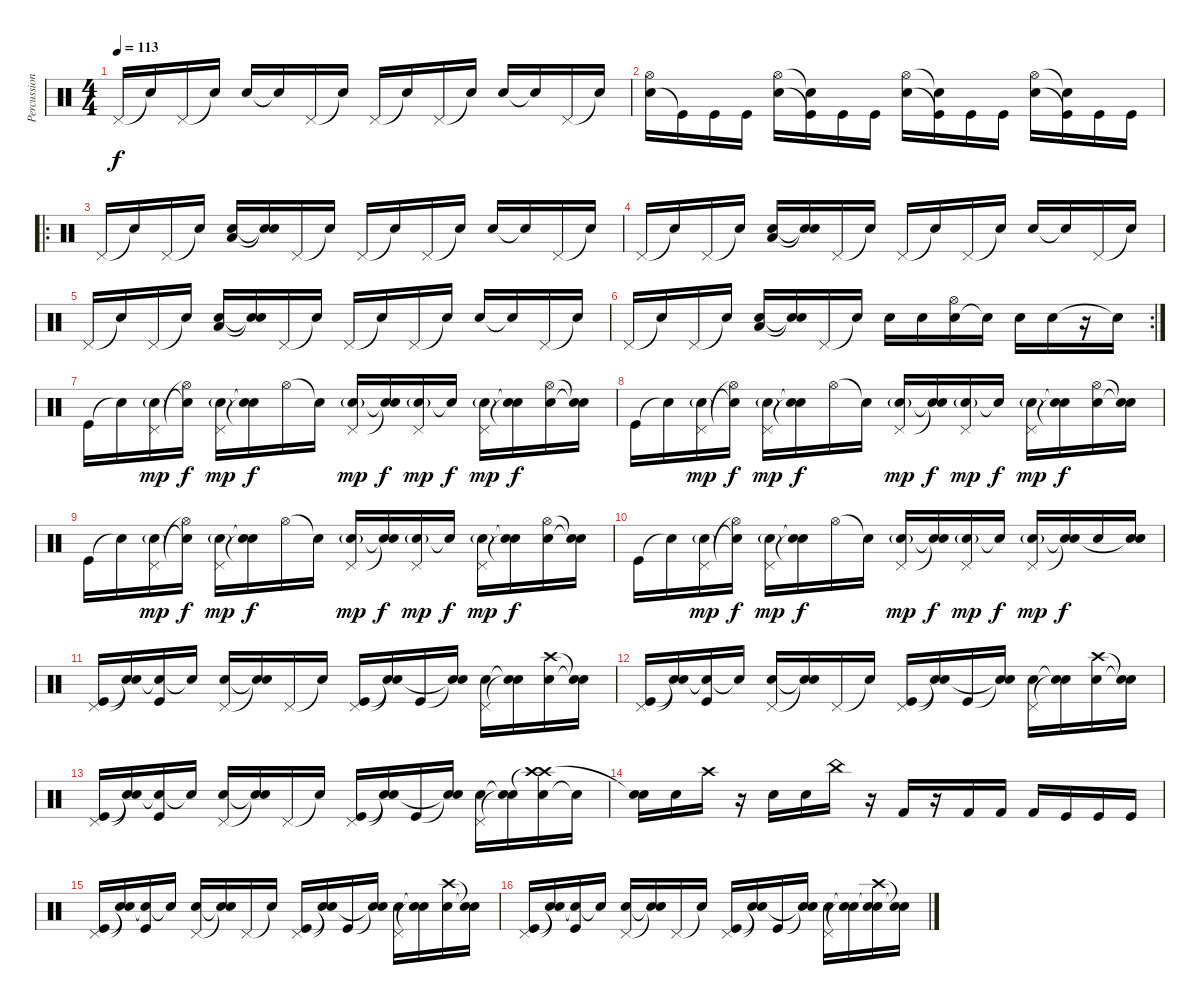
\track ("Percussions" "Percussion") {instrument percussion}
\staff {score}
\articulation defaults
\ts (4 4)
\tempo 113
\clef neutral
\ks c "Pedal Hi-Hat (hit)".16{dy f} "Snare (hit)"{t}.16 "Pedal Hi-Hat (hit)".16 "Snare (hit)"{t}.16 "Snare (hit) 2".16 "Snare (hit)"{t}.16 "Pedal Hi-Hat (hit)".16 "Snare (hit)"{t}.16 "Pedal Hi-Hat (hit)".16 "Snare (hit)"{t}.16 "Pedal Hi-Hat (hit)".16 "Snare (hit)"{t}.16 "Snare (hit) 2".16 "Snare (hit)"{t}.16 "Pedal Hi-Hat (hit)".16 "Snare (hit)"{t}.16
|
("Electric Snare (hit)" "Hi-Hat (open)").16 "Kick (hit)"{t}.16 "Kick (hit)".16 "Kick (hit)".16 ("Electric Snare (hit)" "Hi-Hat (open)").16 ("Kick (hit)"{t} "Snare (hit)"{t}).16 "Kick (hit)".16 "Kick (hit)".16 ("Electric Snare (hit)" "Hi-Hat (open)").16 ("Kick (hit)"{t} "Snare (hit)"{t}).16 "Kick (hit)".16 "Kick (hit)".16 ("Electric Snare (hit)" "Hi-Hat (open)").16 ("Kick (hit)"{t} "Snare (hit)"{t}).16 "Kick (hit)".16 "Kick (hit)".16 |
\ro "Pedal Hi-Hat (hit)".16 "Snare (hit)"{t}.16 "Pedal Hi-Hat (hit)".16 "Snare (hit)"{t}.16
("Snare (hit) 2" "Low Tom (hit)").16 ("Snare (hit)"{t} "Snare (hit)"{t}).16 "Pedal Hi-Hat (hit)".16 "Snare (hit)"{t}.16 "Pedal Hi-Hat (hit)".16 "Snare (hit)"{t}.16 "Pedal Hi-Hat (hit)".16 "Snare (hit)"{t}.16 "Snare (hit) 2".16 "Snare (hit)"{t}.16 "Pedal Hi-Hat (hit)".16 "Snare (hit)"{t}.16 |
"Pedal Hi-Hat (hit)".16 "Snare (hit)"{t}.16 "Pedal Hi-Hat (hit)".16 "Snare (hit)"{t}.16 ("Snare (hit) 2" "Low Tom (hit)").16 ("Snare (hit)"{t} "Snare (hit)"{t}).16 "Pedal Hi-Hat (hit)".16 "Snare (hit)"{t}.16 "Pedal Hi-Hat (hit)".16 "Snare (hit)"{t}.16 "Pedal Hi-Hat (hit)".16 "Snare (hit)"{t}.16 "Snare (hit) 2".16 "Snare (hit)"{t}.16 "Pedal Hi-Hat (hit)".16 "Snare (hit)"{t}.16 |
"Pedal Hi-Hat (hit)".16 "Snare (hit)"{t}.16 "Pedal Hi-Hat (hit)".16 "Snare (hit)"{t}.16 ("Snare (hit) 2" "Low Tom (hit)").16 ("Snare (hit)"{t} "Snare (hit)"{t}).16 "Pedal Hi-Hat (hit)".16 "Snare (hit)"{t}.16 "Pedal Hi-Hat (hit)".16 "Snare (hit)"{t}.16 "Pedal Hi-Hat (hit)".16 "Snare (hit)"{t}.16 "Snare (hit) 2".16 "Snare (hit)"{t}.16 "Pedal Hi-Hat (hit)".16 "Snare (hit)"{t}.16 |
\rc 2 "Pedal Hi-Hat (hit)".16 "Snare (hit)"{t}.16 "Pedal Hi-Hat (hit)".16 "Snare (hit)"{t}.16
("Snare (hit) 2" "Low Tom (hit)").16 ("Snare (hit)"{t} "Snare (hit)"{t}).16 "Pedal Hi-Hat (hit)".16 "Electric Snare (hit)"{t}.16 "Electric Snare (hit)".16 "Electric Snare (hit)".16 ("Electric Snare (hit)" "Hi-Hat (open)").16 "Electric Snare (hit)"{t}.16 "Electric Snare (hit)".16 "Electric Snare (hit)".16 r.16 "Snare (hit)"{t}.16 |
"Kick (hit)".16 "Snare (hit)"{t}.16 ("Electric Snare (hit)"{g} "Pedal Hi-Hat (hit)").16{dy mp} ("Electric Snare (hit)"{t} "Hi-Hat (open)"{t}).16{dy f} ("Electric Snare (hit)"{g} "Pedal Hi-Hat (hit)").16{dy mp} ("Snare (hit)"{t} "Snare (hit)"{t}).16{dy f} "Hi-Hat (open)".16 "Snare (hit)"{t}.16 ("Electric Snare (hit)"{g} "Pedal Hi-Hat (hit)").16{dy mp} ("Snare (hit)"{t} "Snare (hit)"{t}).16{dy f} ("Electric Snare (hit)"{g} "Pedal Hi-Hat (hit)").16{dy mp} "Snare (hit)"{t}.16{dy f} ("Electric Snare (hit)"{g} "Pedal Hi-Hat (hit)").16{dy mp} ("Snare (hit)"{t} "Snare (hit)"{t}).16{dy f} ("Hi-Hat (open)" "Electric Snare (hit)").16 ("Snare (hit)"{t} "Snare (hit)"{t}).16 |
"Kick (hit)".16 "Snare (hit)"{t}.16 ("Electric Snare (hit)"{g} "Pedal Hi-Hat (hit)").16{dy mp} ("Electric Snare (hit)"{t} "Hi-Hat (open)"{t}).16{dy f} ("Electric Snare (hit)"{g} "Pedal Hi-Hat (hit)").16{dy mp} ("Snare (hit)"{t} "Snare (hit)"{t}).16{dy f} "Hi-Hat (open)".16 "Snare (hit)"{t}.16 ("Electric Snare (hit)"{g} "Pedal Hi-Hat (hit)").16{dy mp} ("Snare (hit)"{t} "Snare (hit)"{t}).16{dy f} ("Electric Snare (hit)"{g} "Pedal Hi-Hat (hit)").16{dy mp} "Snare (hit)"{t}.16{dy f} ("Electric Snare (hit)"{g} "Pedal Hi-Hat (hit)").16{dy mp} ("Snare (hit)"{t} "Snare (hit)"{t}).16{dy f} ("Hi-Hat (open)" "Electric Snare (hit)").16 ("Snare (hit)"{t} "Snare (hit)"{t}).16 |
"Kick (hit)".16 "Snare (hit)"{t}.16 ("Electric Snare (hit)"{g} "Pedal Hi-Hat (hit)").16{dy mp} ("Electric Snare (hit)"{t} "Hi-Hat (open)"{t}).16{dy f} ("Electric Snare (hit)"{g} "Pedal Hi-Hat (hit)").16{dy mp} ("Snare (hit)"{t} "Snare (hit)"{t}).16{dy f} "Hi-Hat (open)".16 "Snare (hit)"{t}.16 ("Electric Snare (hit)"{g} "Pedal Hi-Hat (hit)").16{dy mp} ("Snare (hit)"{t} "Snare (hit)"{t}).16{dy f} ("Electric Snare (hit)"{g} "Pedal Hi-Hat (hit)").16{dy mp} "Snare (hit)"{t}.16{dy f} ("Electric Snare (hit)"{g} "Pedal Hi-Hat (hit)").16{dy mp} ("Snare (hit)"{t} "Snare (hit)"{t}).16{dy f} ("Hi-Hat (open)" "Electric Snare (hit)").16 ("Snare (hit)"{t} "Snare (hit)"{t}).16 |
"Kick (hit)".16 "Snare (hit)"{t}.16 ("Electric Snare (hit)"{g} "Pedal Hi-Hat (hit)").16{dy mp} ("Electric Snare (hit)"{t} "Hi-Hat (open)"{t}).16{dy f} ("Electric Snare (hit)"{g} "Pedal Hi-Hat (hit)").16{dy mp} ("Snare (hit)"{t} "Snare (hit)"{t}).16{dy f} "Hi-Hat (open)".16 "Snare (hit)"{t}.16 ("Electric Snare (hit)"{g} "Pedal Hi-Hat (hit)").16{dy mp} ("Snare (hit)"{t} "Snare (hit)"{t}).16{dy f} ("Electric Snare (hit)"{g} "Pedal Hi-Hat (hit)").16{dy mp} "Snare (hit)"{t}.16{dy f} ("Electric Snare (hit)"{g} "Pedal Hi-Hat (hit)").16{dy mp} ("Snare (hit)"{t} "Snare (hit)"{t}).16{dy f} "Electric Snare (hit)".16 ("Electric Snare (hit)" "Snare (hit)"{t}).16 |
("Pedal Hi-Hat (hit)" "Kick (hit)").16 ("Snare (hit)"{t} "Snare (hit)"{t}).16 ("Snare (hit)"{t} "Kick (hit)").16 "Snare (hit)"{t}.16 ("Pedal Hi-Hat (hit)" "Electric Snare (hit)").16 ("Snare (hit)"{t} "Snare (hit)"{t}).16 "Pedal Hi-Hat (hit)".16 "Snare (hit)"{t}.16 ("Pedal Hi-Hat (hit)" "Kick (hit)").16 ("Snare (hit)"{t} "Snare (hit)"{t}).16 "Kick (hit)".16 ("Snare (hit)"{t} "Snare (hit)"{t}).16 ("Pedal Hi-Hat (hit)" "Electric Snare (hit)").16 ("Snare (hit)"{t} "Snare (hit)"{t}).16 ("Crash high (hit)" "Electric Snare (hit)").16 ("Snare (hit)"{t} "Snare (hit)"{t}).16 |
("Pedal Hi-Hat (hit)" "Kick (hit)").16 ("Snare (hit)"{t} "Snare (hit)"{t}).16 ("Snare (hit)"{t} "Kick (hit)").16 "Snare (hit)"{t}.16 ("Pedal Hi-Hat (hit)" "Electric Snare (hit)").16 ("Snare (hit)"{t} "Snare (hit)"{t}).16 "Pedal Hi-Hat (hit)".16 "Snare (hit)"{t}.16 ("Pedal Hi-Hat (hit)" "Kick (hit)").16 ("Snare (hit)"{t} "Snare (hit)"{t}).16 "Kick (hit)".16 ("Snare (hit)"{t} "Snare (hit)"{t}).16 ("Pedal Hi-Hat (hit)" "Electric Snare (hit)").16 ("Snare (hit)"{t} "Snare (hit)"{t}).16 ("Crash high (hit)" "Electric Snare (hit)").16 ("Snare (hit)"{t} "Snare (hit)"{t}).16 |
("Pedal Hi-Hat (hit)" "Kick (hit)").16 ("Snare (hit)"{t} "Snare (hit)"{t}).16 ("Snare (hit)"{t} "Kick (hit)").16 "Snare (hit)"{t}.16 ("Pedal Hi-Hat (hit)" "Electric Snare (hit)").16 ("Snare (hit)"{t} "Snare (hit)"{t}).16 "Pedal Hi-Hat (hit)".16 "Snare (hit)"{t}.16 ("Pedal Hi-Hat (hit)" "Kick (hit)").16 ("Snare (hit)"{t} "Snare (hit)"{t}).16 "Kick (hit)".16 ("Snare (hit)"{t} "Snare (hit)"{t}).16 ("Pedal Hi-Hat (hit)" "Electric Snare (hit)").16 ("Snare (hit)"{t} "Snare (hit)"{t}).16 ("Electric Snare (hit)" "Crash high (hit)"{t} "Crash high (hit)").16 "Snare (hit)"{t}.16 |
("Electric Snare (hit)" "Snare (hit)"{t}).16 "Electric Snare (hit)".16 "Crash high (hit)".16 r.16 "Electric Snare (hit)".16 "Electric Snare (hit)".16 "China (hit)".16 r.16 "Kick (hit) 2".16 r.16 "Kick (hit) 2".16 "Kick (hit) 2".16 "Kick (hit) 2".16 "Kick (hit)".16 "Kick (hit)".16 "Kick (hit)".16 |
("Pedal Hi-Hat (hit)" "Kick (hit)").16 ("Snare (hit)"{t} "Snare (hit)"{t}).16 ("Snare (hit)"{t} "Kick (hit)").16 "Snare (hit)"{t}.16 ("Pedal Hi-Hat (hit)" "Electric Snare (hit)").16 ("Snare (hit)"{t} "Snare (hit)"{t}).16 "Pedal Hi-Hat (hit)".16 "Snare (hit)"{t}.16 ("Pedal Hi-Hat (hit)" "Kick (hit)").16 ("Snare (hit)"{t} "Snare (hit)"{t}).16 "Kick (hit)".16 ("Snare (hit)"{t} "Snare (hit)"{t}).16 ("Pedal Hi-Hat (hit)" "Electric Snare (hit)").16 ("Snare (hit)"{t} "Snare (hit)"{t}).16 ("Crash high (hit)" "Electric Snare (hit)").16 ("Snare (hit)"{t} "Snare (hit)"{t}).16 |
("Pedal Hi-Hat (hit)" "Kick (hit)").16 ("Snare (hit)"{t} "Snare (hit)"{t}).16 ("Snare (hit)"{t} "Kick (hit)").16 "Snare (hit)"{t}.16 ("Pedal Hi-Hat (hit)" "Electric Snare (hit)").16 ("Snare (hit)"{t} "Snare (hit)"{t}).16 "Pedal Hi-Hat (hit)".16 "Snare (hit)"{t}.16 ("Pedal Hi-Hat (hit)" "Kick (hit)").16 ("Snare (hit)"{t} "Snare (hit)"{t}).16 "Kick (hit)".16 ("Snare (hit)"{t} "Snare (hit)"{t}).16 ("Pedal Hi-Hat (hit)" "Electric Snare (hit)").16 ("Snare (hit)"{t} "Snare (hit)"{t}).16 ("Crash high (hit)" "Snare (hit)"{t} "Electric Snare (hit)").16 ("Snare (hit)"{t} "Snare (hit)"{t}).16
